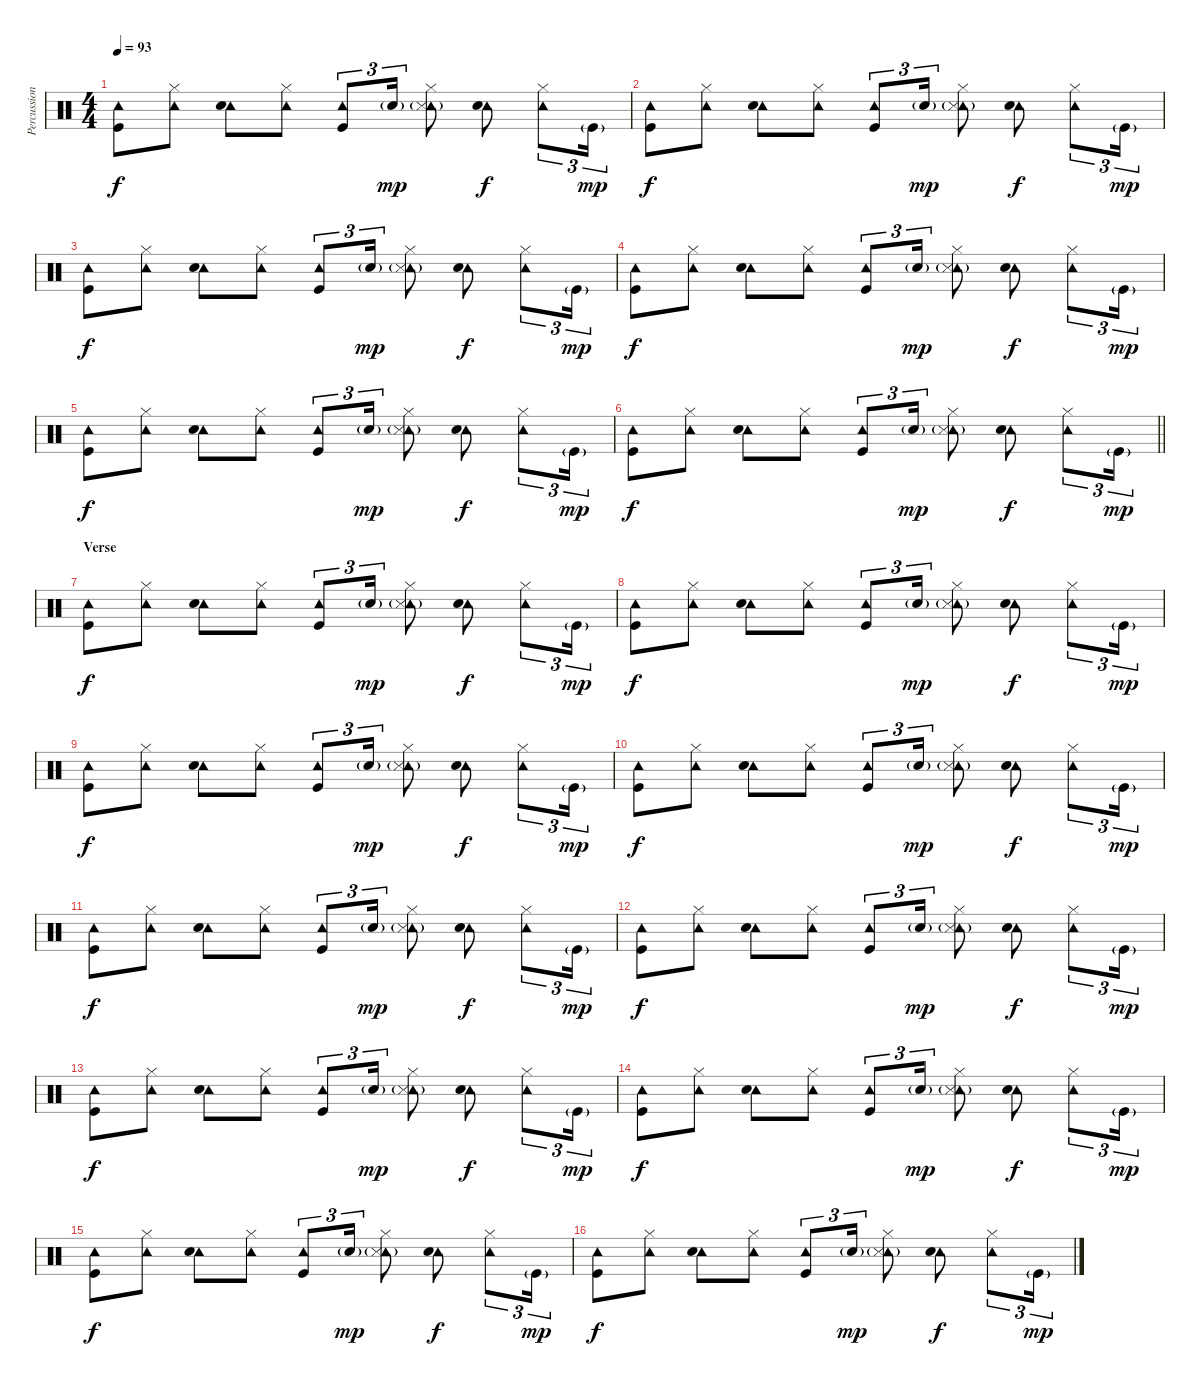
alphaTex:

\track ("Percussion" "Percussion") {instrument percussion}
\staff {score}
\articulation defaults
\ts (4 4)
\tempo 93
\clef neutral
\ks c
("Tambourine (hit)" "Kick (hit)").8{dy f} ("Tambourine (hit)" "Hi-Hat (closed)").8 ("Tambourine (hit)" "Electric Snare (hit)").8 ("Tambourine (hit)" "Hi-Hat (closed)").8 ("Tambourine (hit)" "Kick (hit)").8{tu (3 2)} "Electric Snare (hit)"{g}.16{tu (3 2) dy mp} ("Tambourine (hit)" "Hi-Hat (closed)" "Snare (side stick) 3"{g}).8 ("Tambourine (hit)" "Electric Snare (hit)").8{dy f} ("Tambourine (hit)" "Hi-Hat (closed)").8{tu (3 2)} "Kick (hit)"{g}.16{tu (3 2) dy mp} |
("Tambourine (hit)" "Kick (hit)").8{dy f} ("Tambourine (hit)" "Hi-Hat (closed)").8 ("Tambourine (hit)" "Electric Snare (hit)").8 ("Tambourine (hit)" "Hi-Hat (closed)").8 ("Tambourine (hit)" "Kick (hit)").8{tu (3 2)} "Electric Snare (hit)"{g}.16{tu (3 2) dy mp} ("Tambourine (hit)" "Hi-Hat (closed)" "Snare (side stick) 3"{g}).8 ("Tambourine (hit)" "Electric Snare (hit)").8{dy f} ("Tambourine (hit)" "Hi-Hat (closed)").8{tu (3 2)} "Kick (hit)"{g}.16{tu (3 2) dy mp} |
("Tambourine (hit)" "Kick (hit)").8{dy f} ("Tambourine (hit)" "Hi-Hat (closed)").8 ("Tambourine (hit)" "Electric Snare (hit)").8 ("Tambourine (hit)" "Hi-Hat (closed)").8 ("Tambourine (hit)" "Kick (hit)").8{tu (3 2)} "Electric Snare (hit)"{g}.16{tu (3 2) dy mp} ("Tambourine (hit)" "Hi-Hat (closed)" "Snare (side stick) 3"{g}).8 ("Tambourine (hit)" "Electric Snare (hit)").8{dy f} ("Tambourine (hit)" "Hi-Hat (closed)").8{tu (3 2)} "Kick (hit)"{g}.16{tu (3 2) dy mp} |
("Tambourine (hit)" "Kick (hit)").8{dy f} ("Tambourine (hit)" "Hi-Hat (closed)").8 ("Tambourine (hit)" "Electric Snare (hit)").8 ("Tambourine (hit)" "Hi-Hat (closed)").8 ("Tambourine (hit)" "Kick (hit)").8{tu (3 2)} "Electric Snare (hit)"{g}.16{tu (3 2) dy mp} ("Tambourine (hit)" "Hi-Hat (closed)" "Snare (side stick) 3"{g}).8 ("Tambourine (hit)" "Electric Snare (hit)").8{dy f} ("Tambourine (hit)" "Hi-Hat (closed)").8{tu (3 2)} "Kick (hit)"{g}.16{tu (3 2) dy mp} |
("Tambourine (hit)" "Kick (hit)").8{dy f} ("Tambourine (hit)" "Hi-Hat (closed)").8 ("Tambourine (hit)" "Electric Snare (hit)").8 ("Tambourine (hit)" "Hi-Hat (closed)").8 ("Tambourine (hit)" "Kick (hit)").8{tu (3 2)} "Electric Snare (hit)"{g}.16{tu (3 2) dy mp} ("Tambourine (hit)" "Hi-Hat (closed)" "Snare (side stick) 3"{g}).8 ("Tambourine (hit)" "Electric Snare (hit)").8{dy f} ("Tambourine (hit)" "Hi-Hat (closed)").8{tu (3 2)} "Kick (hit)"{g}.16{tu (3 2) dy mp} |
\barLineRight lightlight
("Tambourine (hit)" "Kick (hit)").8{dy f} ("Tambourine (hit)" "Hi-Hat (closed)").8 ("Tambourine (hit)" "Electric Snare (hit)").8 ("Tambourine (hit)" "Hi-Hat (closed)").8 ("Tambourine (hit)" "Kick (hit)").8{tu (3 2)} "Electric Snare (hit)"{g}.16{tu (3 2) dy mp} ("Tambourine (hit)" "Hi-Hat (closed)" "Snare (side stick) 3"{g}).8 ("Tambourine (hit)" "Electric Snare (hit)").8{dy f} ("Tambourine (hit)" "Hi-Hat (closed)").8{tu (3 2)} "Kick (hit)"{g}.16{tu (3 2) dy mp} |
\section ("" "Verse")
("Tambourine (hit)" "Kick (hit)").8{dy f} ("Tambourine (hit)" "Hi-Hat (closed)").8 ("Tambourine (hit)" "Electric Snare (hit)").8 ("Tambourine (hit)" "Hi-Hat (closed)").8 ("Tambourine (hit)" "Kick (hit)").8{tu (3 2)} "Electric Snare (hit)"{g}.16{tu (3 2) dy mp} ("Tambourine (hit)" "Hi-Hat (closed)" "Snare (side stick) 3"{g}).8 ("Tambourine (hit)" "Electric Snare (hit)").8{dy f} ("Tambourine (hit)" "Hi-Hat (closed)").8{tu (3 2)} "Kick (hit)"{g}.16{tu (3 2) dy mp} |
("Tambourine (hit)" "Kick (hit)").8{dy f} ("Tambourine (hit)" "Hi-Hat (closed)").8 ("Tambourine (hit)" "Electric Snare (hit)").8 ("Tambourine (hit)" "Hi-Hat (closed)").8 ("Tambourine (hit)" "Kick (hit)").8{tu (3 2)} "Electric Snare (hit)"{g}.16{tu (3 2) dy mp} ("Tambourine (hit)" "Hi-Hat (closed)" "Snare (side stick) 3"{g}).8 ("Tambourine (hit)" "Electric Snare (hit)").8{dy f} ("Tambourine (hit)" "Hi-Hat (closed)").8{tu (3 2)} "Kick (hit)"{g}.16{tu (3 2) dy mp} |
("Tambourine (hit)" "Kick (hit)").8{dy f} ("Tambourine (hit)" "Hi-Hat (closed)").8 ("Tambourine (hit)" "Electric Snare (hit)").8 ("Tambourine (hit)" "Hi-Hat (closed)").8 ("Tambourine (hit)" "Kick (hit)").8{tu (3 2)} "Electric Snare (hit)"{g}.16{tu (3 2) dy mp} ("Tambourine (hit)" "Hi-Hat (closed)" "Snare (side stick) 3"{g}).8 ("Tambourine (hit)" "Electric Snare (hit)").8{dy f} ("Tambourine (hit)" "Hi-Hat (closed)").8{tu (3 2)} "Kick (hit)"{g}.16{tu (3 2) dy mp} |
("Tambourine (hit)" "Kick (hit)").8{dy f} ("Tambourine (hit)" "Hi-Hat (closed)").8 ("Tambourine (hit)" "Electric Snare (hit)").8 ("Tambourine (hit)" "Hi-Hat (closed)").8 ("Tambourine (hit)" "Kick (hit)").8{tu (3 2)} "Electric Snare (hit)"{g}.16{tu (3 2) dy mp} ("Tambourine (hit)" "Hi-Hat (closed)" "Snare (side stick) 3"{g}).8 ("Tambourine (hit)" "Electric Snare (hit)").8{dy f} ("Tambourine (hit)" "Hi-Hat (closed)").8{tu (3 2)} "Kick (hit)"{g}.16{tu (3 2) dy mp} |
("Tambourine (hit)" "Kick (hit)").8{dy f} ("Tambourine (hit)" "Hi-Hat (closed)").8 ("Tambourine (hit)" "Electric Snare (hit)").8 ("Tambourine (hit)" "Hi-Hat (closed)").8 ("Tambourine (hit)" "Kick (hit)").8{tu (3 2)} "Electric Snare (hit)"{g}.16{tu (3 2) dy mp} ("Tambourine (hit)" "Hi-Hat (closed)" "Snare (side stick) 3"{g}).8 ("Tambourine (hit)" "Electric Snare (hit)").8{dy f} ("Tambourine (hit)" "Hi-Hat (closed)").8{tu (3 2)} "Kick (hit)"{g}.16{tu (3 2) dy mp} |
("Tambourine (hit)" "Kick (hit)").8{dy f} ("Tambourine (hit)" "Hi-Hat (closed)").8 ("Tambourine (hit)" "Electric Snare (hit)").8 ("Tambourine (hit)" "Hi-Hat (closed)").8 ("Tambourine (hit)" "Kick (hit)").8{tu (3 2)} "Electric Snare (hit)"{g}.16{tu (3 2) dy mp} ("Tambourine (hit)" "Hi-Hat (closed)" "Snare (side stick) 3"{g}).8 ("Tambourine (hit)" "Electric Snare (hit)").8{dy f} ("Tambourine (hit)" "Hi-Hat (closed)").8{tu (3 2)} "Kick (hit)"{g}.16{tu (3 2) dy mp} |
("Tambourine (hit)" "Kick (hit)").8{dy f} ("Tambourine (hit)" "Hi-Hat (closed)").8 ("Tambourine (hit)" "Electric Snare (hit)").8 ("Tambourine (hit)" "Hi-Hat (closed)").8 ("Tambourine (hit)" "Kick (hit)").8{tu (3 2)} "Electric Snare (hit)"{g}.16{tu (3 2) dy mp} ("Tambourine (hit)" "Hi-Hat (closed)" "Snare (side stick) 3"{g}).8 ("Tambourine (hit)" "Electric Snare (hit)").8{dy f} ("Tambourine (hit)" "Hi-Hat (closed)").8{tu (3 2)} "Kick (hit)"{g}.16{tu (3 2) dy mp} |
("Tambourine (hit)" "Kick (hit)").8{dy f} ("Tambourine (hit)" "Hi-Hat (closed)").8 ("Tambourine (hit)" "Electric Snare (hit)").8 ("Tambourine (hit)" "Hi-Hat (closed)").8 ("Tambourine (hit)" "Kick (hit)").8{tu (3 2)} "Electric Snare (hit)"{g}.16{tu (3 2) dy mp} ("Tambourine (hit)" "Hi-Hat (closed)" "Snare (side stick) 3"{g}).8 ("Tambourine (hit)" "Electric Snare (hit)").8{dy f} ("Tambourine (hit)" "Hi-Hat (closed)").8{tu (3 2)} "Kick (hit)"{g}.16{tu (3 2) dy mp} |
("Tambourine (hit)" "Kick (hit)").8{dy f} ("Tambourine (hit)" "Hi-Hat (closed)").8 ("Tambourine (hit)" "Electric Snare (hit)").8 ("Tambourine (hit)" "Hi-Hat (closed)").8 ("Tambourine (hit)" "Kick (hit)").8{tu (3 2)} "Electric Snare (hit)"{g}.16{tu (3 2) dy mp} ("Tambourine (hit)" "Hi-Hat (closed)" "Snare (side stick) 3"{g}).8 ("Tambourine (hit)" "Electric Snare (hit)").8{dy f} ("Tambourine (hit)" "Hi-Hat (closed)").8{tu (3 2)} "Kick (hit)"{g}.16{tu (3 2) dy mp} |
("Tambourine (hit)" "Kick (hit)").8{dy f} ("Tambourine (hit)" "Hi-Hat (closed)").8 ("Tambourine (hit)" "Electric Snare (hit)").8 ("Tambourine (hit)" "Hi-Hat (closed)").8 ("Tambourine (hit)" "Kick (hit)").8{tu (3 2)} "Electric Snare (hit)"{g}.16{tu (3 2) dy mp} ("Tambourine (hit)" "Hi-Hat (closed)" "Snare (side stick) 3"{g}).8 ("Tambourine (hit)" "Electric Snare (hit)").8{dy f} ("Tambourine (hit)" "Hi-Hat (closed)").8{tu (3 2)} "Kick (hit)"{g}.16{tu (3 2) dy mp}
